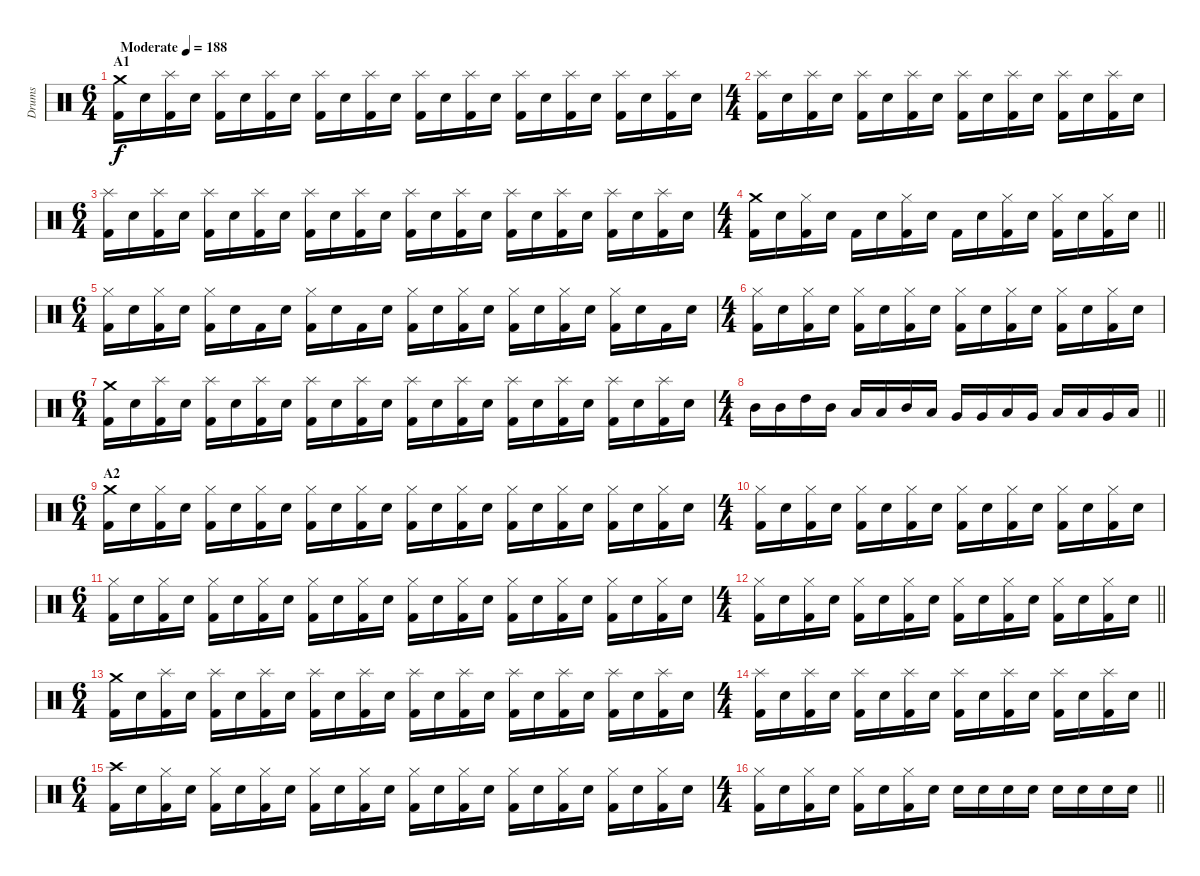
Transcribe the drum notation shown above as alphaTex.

\track ("Drums" "Drums") {instrument percussion}
\staff {score}
\articulation defaults
\ts (6 4)
\section ("" "A1")
\tempo (188 "Moderate")
\clef neutral
\ks c
("Crash medium (hit)" "Kick (hit) 2").16{dy f} "Electric Snare (hit)".16 ("Splash (hit)" "Kick (hit) 2").16 "Electric Snare (hit)".16 ("Splash (hit)" "Kick (hit) 2").16 "Electric Snare (hit)".16 ("Splash (hit)" "Kick (hit) 2").16 "Electric Snare (hit)".16 ("Splash (hit)" "Kick (hit) 2").16 "Electric Snare (hit)".16 ("Splash (hit)" "Kick (hit) 2").16 "Electric Snare (hit)".16 ("Splash (hit)" "Kick (hit) 2").16 "Electric Snare (hit)".16 ("Splash (hit)" "Kick (hit) 2").16 "Electric Snare (hit)".16 ("Splash (hit)" "Kick (hit) 2").16 "Electric Snare (hit)".16 ("Splash (hit)" "Kick (hit) 2").16 "Electric Snare (hit)".16 ("Splash (hit)" "Kick (hit) 2").16 "Electric Snare (hit)".16 ("Splash (hit)" "Kick (hit) 2").16 "Electric Snare (hit)".16 |
\ts (4 4)
("Splash (hit)" "Kick (hit) 2").16 "Electric Snare (hit)".16 ("Splash (hit)" "Kick (hit) 2").16 "Electric Snare (hit)".16 ("Splash (hit)" "Kick (hit) 2").16 "Electric Snare (hit)".16 ("Splash (hit)" "Kick (hit) 2").16 "Electric Snare (hit)".16 ("Splash (hit)" "Kick (hit) 2").16 "Electric Snare (hit)".16 ("Splash (hit)" "Kick (hit) 2").16 "Electric Snare (hit)".16 ("Splash (hit)" "Kick (hit) 2").16 "Electric Snare (hit)".16 ("Splash (hit)" "Kick (hit) 2").16 "Electric Snare (hit)".16 |
\ts (6 4)
("Splash (hit)" "Kick (hit) 2").16 "Electric Snare (hit)".16 ("Splash (hit)" "Kick (hit) 2").16 "Electric Snare (hit)".16 ("Splash (hit)" "Kick (hit) 2").16 "Electric Snare (hit)".16 ("Splash (hit)" "Kick (hit) 2").16 "Electric Snare (hit)".16 ("Splash (hit)" "Kick (hit) 2").16 "Electric Snare (hit)".16 ("Splash (hit)" "Kick (hit) 2").16 "Electric Snare (hit)".16 ("Splash (hit)" "Kick (hit) 2").16 "Electric Snare (hit)".16 ("Splash (hit)" "Kick (hit) 2").16 "Electric Snare (hit)".16 ("Splash (hit)" "Kick (hit) 2").16 "Electric Snare (hit)".16 ("Splash (hit)" "Kick (hit) 2").16 "Electric Snare (hit)".16 ("Splash (hit)" "Kick (hit) 2").16 "Electric Snare (hit)".16 ("Splash (hit)" "Kick (hit) 2").16 "Electric Snare (hit)".16 |
\ts (4 4)
\barLineRight lightlight
("Crash medium (hit)" "Kick (hit) 2").16 "Electric Snare (hit)".16 ("Hi-Hat (closed)" "Kick (hit) 2").16 "Electric Snare (hit)".16 "Kick (hit) 2".16 "Electric Snare (hit)".16 ("Hi-Hat (closed)" "Kick (hit) 2").16 "Electric Snare (hit)".16 "Kick (hit) 2".16 "Electric Snare (hit)".16 ("Hi-Hat (closed)" "Kick (hit) 2").16 "Electric Snare (hit)".16 ("Hi-Hat (closed)" "Kick (hit) 2").16 "Electric Snare (hit)".16 ("Hi-Hat (closed)" "Kick (hit) 2").16 "Electric Snare (hit)".16 |
\ts (6 4)
\section ("" "")
("Hi-Hat (closed)" "Kick (hit) 2").16 "Electric Snare (hit)".16 ("Hi-Hat (closed)" "Kick (hit) 2").16 "Electric Snare (hit)".16 ("Hi-Hat (closed)" "Kick (hit) 2").16 "Electric Snare (hit)".16 "Kick (hit) 2".16 "Electric Snare (hit)".16 ("Hi-Hat (closed)" "Kick (hit) 2").16 "Electric Snare (hit)".16 "Kick (hit) 2".16 "Electric Snare (hit)".16 ("Hi-Hat (closed)" "Kick (hit) 2").16 "Electric Snare (hit)".16 ("Hi-Hat (closed)" "Kick (hit) 2").16 "Electric Snare (hit)".16 ("Hi-Hat (closed)" "Kick (hit) 2").16 "Electric Snare (hit)".16 ("Hi-Hat (closed)" "Kick (hit) 2").16 "Electric Snare (hit)".16 ("Hi-Hat (closed)" "Kick (hit) 2").16 "Electric Snare (hit)".16 "Kick (hit) 2".16 "Electric Snare (hit)".16 |
\ts (4 4)
("Hi-Hat (closed)" "Kick (hit) 2").16 "Electric Snare (hit)".16 ("Hi-Hat (closed)" "Kick (hit) 2").16 "Electric Snare (hit)".16 ("Hi-Hat (closed)" "Kick (hit) 2").16 "Electric Snare (hit)".16 ("Hi-Hat (closed)" "Kick (hit) 2").16 "Electric Snare (hit)".16 ("Hi-Hat (closed)" "Kick (hit) 2").16 "Electric Snare (hit)".16 ("Hi-Hat (closed)" "Kick (hit) 2").16 "Electric Snare (hit)".16 ("Hi-Hat (closed)" "Kick (hit) 2").16 "Electric Snare (hit)".16 ("Hi-Hat (closed)" "Kick (hit) 2").16 "Electric Snare (hit)".16 |
\ts (6 4)
("Crash medium (hit)" "Kick (hit) 2").16 "Electric Snare (hit)".16 ("Splash (hit)" "Kick (hit) 2").16 "Electric Snare (hit)".16 ("Splash (hit)" "Kick (hit) 2").16 "Electric Snare (hit)".16 ("Splash (hit)" "Kick (hit) 2").16 "Electric Snare (hit)".16 ("Splash (hit)" "Kick (hit) 2").16 "Electric Snare (hit)".16 ("Splash (hit)" "Kick (hit) 2").16 "Electric Snare (hit)".16 ("Splash (hit)" "Kick (hit) 2").16 "Electric Snare (hit)".16 ("Splash (hit)" "Kick (hit) 2").16 "Electric Snare (hit)".16 ("Splash (hit)" "Kick (hit) 2").16 "Electric Snare (hit)".16 ("Splash (hit)" "Kick (hit) 2").16 "Electric Snare (hit)".16 ("Splash (hit)" "Kick (hit) 2").16 "Electric Snare (hit)".16 ("Splash (hit)" "Kick (hit) 2").16 "Electric Snare (hit)".16 |
\ts (4 4)
\barLineRight lightlight "Mid Tom (hit)".16 "Mid Tom (hit)".16 "High Tom (hit)".16 "Mid Tom (hit)".16 "Low Tom (hit)".16 "Low Tom (hit)".16 "Mid Tom (hit)".16 "Low Tom (hit)".16 "Very Low Tom (hit)".16 "Very Low Tom (hit)".16 "Low Tom (hit)".16 "Very Low Tom (hit)".16 "Low Floor Tom (hit)".16 "Low Floor Tom (hit)".16 "Very Low Tom (hit)".16 "Low Floor Tom (hit)".16
|
\ts (6 4)
\section ("" "A2")
("Crash medium (hit)" "Kick (hit) 2").16 "Electric Snare (hit)".16 ("Hi-Hat (closed)" "Kick (hit) 2").16 "Electric Snare (hit)".16 ("Hi-Hat (closed)" "Kick (hit) 2").16 "Electric Snare (hit)".16 ("Hi-Hat (closed)" "Kick (hit) 2").16 "Electric Snare (hit)".16 ("Hi-Hat (closed)" "Kick (hit) 2").16 "Electric Snare (hit)".16 ("Hi-Hat (closed)" "Kick (hit) 2").16 "Electric Snare (hit)".16 ("Hi-Hat (closed)" "Kick (hit) 2").16 "Electric Snare (hit)".16 ("Hi-Hat (closed)" "Kick (hit) 2").16 "Electric Snare (hit)".16 ("Hi-Hat (closed)" "Kick (hit) 2").16 "Electric Snare (hit)".16 ("Hi-Hat (closed)" "Kick (hit) 2").16 "Electric Snare (hit)".16 ("Hi-Hat (closed)" "Kick (hit) 2").16 "Electric Snare (hit)".16 ("Hi-Hat (closed)" "Kick (hit) 2").16 "Electric Snare (hit)".16 |
\ts (4 4)
("Hi-Hat (closed)" "Kick (hit) 2").16 "Electric Snare (hit)".16 ("Hi-Hat (closed)" "Kick (hit) 2").16 "Electric Snare (hit)".16 ("Hi-Hat (closed)" "Kick (hit) 2").16 "Electric Snare (hit)".16 ("Hi-Hat (closed)" "Kick (hit) 2").16 "Electric Snare (hit)".16 ("Hi-Hat (closed)" "Kick (hit) 2").16 "Electric Snare (hit)".16 ("Hi-Hat (closed)" "Kick (hit) 2").16 "Electric Snare (hit)".16 ("Hi-Hat (closed)" "Kick (hit) 2").16 "Electric Snare (hit)".16 ("Hi-Hat (closed)" "Kick (hit) 2").16 "Electric Snare (hit)".16 |
\ts (6 4)
("Hi-Hat (closed)" "Kick (hit) 2").16 "Electric Snare (hit)".16 ("Hi-Hat (closed)" "Kick (hit) 2").16 "Electric Snare (hit)".16 ("Hi-Hat (closed)" "Kick (hit) 2").16 "Electric Snare (hit)".16 ("Hi-Hat (closed)" "Kick (hit) 2").16 "Electric Snare (hit)".16 ("Hi-Hat (closed)" "Kick (hit) 2").16 "Electric Snare (hit)".16 ("Hi-Hat (closed)" "Kick (hit) 2").16 "Electric Snare (hit)".16 ("Hi-Hat (closed)" "Kick (hit) 2").16 "Electric Snare (hit)".16 ("Hi-Hat (closed)" "Kick (hit) 2").16 "Electric Snare (hit)".16 ("Hi-Hat (closed)" "Kick (hit) 2").16 "Electric Snare (hit)".16 ("Hi-Hat (closed)" "Kick (hit) 2").16 "Electric Snare (hit)".16 ("Hi-Hat (closed)" "Kick (hit) 2").16 "Electric Snare (hit)".16 ("Hi-Hat (closed)" "Kick (hit) 2").16 "Electric Snare (hit)".16 |
\ts (4 4)
\barLineRight lightlight
("Hi-Hat (closed)" "Kick (hit) 2").16 "Electric Snare (hit)".16 ("Hi-Hat (closed)" "Kick (hit) 2").16 "Electric Snare (hit)".16 ("Hi-Hat (closed)" "Kick (hit) 2").16 "Electric Snare (hit)".16 ("Hi-Hat (closed)" "Kick (hit) 2").16 "Electric Snare (hit)".16 ("Hi-Hat (closed)" "Kick (hit) 2").16 "Electric Snare (hit)".16 ("Hi-Hat (closed)" "Kick (hit) 2").16 "Electric Snare (hit)".16 ("Hi-Hat (closed)" "Kick (hit) 2").16 "Electric Snare (hit)".16 ("Hi-Hat (closed)" "Kick (hit) 2").16 "Electric Snare (hit)".16 |
\ts (6 4)
\section ("" "")
("Crash medium (hit)" "Kick (hit) 2").16 "Electric Snare (hit)".16 ("Splash (hit)" "Kick (hit) 2").16 "Electric Snare (hit)".16 ("Splash (hit)" "Kick (hit) 2").16 "Electric Snare (hit)".16 ("Splash (hit)" "Kick (hit) 2").16 "Electric Snare (hit)".16 ("Splash (hit)" "Kick (hit) 2").16 "Electric Snare (hit)".16 ("Splash (hit)" "Kick (hit) 2").16 "Electric Snare (hit)".16 ("Splash (hit)" "Kick (hit) 2").16 "Electric Snare (hit)".16 ("Splash (hit)" "Kick (hit) 2").16 "Electric Snare (hit)".16 ("Splash (hit)" "Kick (hit) 2").16 "Electric Snare (hit)".16 ("Splash (hit)" "Kick (hit) 2").16 "Electric Snare (hit)".16 ("Splash (hit)" "Kick (hit) 2").16 "Electric Snare (hit)".16 ("Splash (hit)" "Kick (hit) 2").16 "Electric Snare (hit)".16 |
\ts (4 4)
\barLineRight lightlight
("Splash (hit)" "Kick (hit) 2").16 "Electric Snare (hit)".16 ("Splash (hit)" "Kick (hit) 2").16 "Electric Snare (hit)".16 ("Splash (hit)" "Kick (hit) 2").16 "Electric Snare (hit)".16 ("Splash (hit)" "Kick (hit) 2").16 "Electric Snare (hit)".16 ("Splash (hit)" "Kick (hit) 2").16 "Electric Snare (hit)".16 ("Splash (hit)" "Kick (hit) 2").16 "Electric Snare (hit)".16 ("Splash (hit)" "Kick (hit) 2").16 "Electric Snare (hit)".16 ("Splash (hit)" "Kick (hit) 2").16 "Electric Snare (hit)".16 |
\ts (6 4)
("Crash high (hit)" "Kick (hit) 2").16 "Electric Snare (hit)".16 ("Hi-Hat (closed)" "Kick (hit) 2").16 "Electric Snare (hit)".16 ("Hi-Hat (closed)" "Kick (hit) 2").16 "Electric Snare (hit)".16 ("Hi-Hat (closed)" "Kick (hit) 2").16 "Electric Snare (hit)".16 ("Hi-Hat (closed)" "Kick (hit) 2").16 "Electric Snare (hit)".16 ("Hi-Hat (closed)" "Kick (hit) 2").16 "Electric Snare (hit)".16 ("Hi-Hat (closed)" "Kick (hit) 2").16 "Electric Snare (hit)".16 ("Hi-Hat (closed)" "Kick (hit) 2").16 "Electric Snare (hit)".16 ("Hi-Hat (closed)" "Kick (hit) 2").16 "Electric Snare (hit)".16 ("Hi-Hat (closed)" "Kick (hit) 2").16 "Electric Snare (hit)".16 ("Hi-Hat (closed)" "Kick (hit) 2").16 "Electric Snare (hit)".16 ("Hi-Hat (closed)" "Kick (hit) 2").16 "Electric Snare (hit)".16 |
\ts (4 4)
\barLineRight lightlight
("Hi-Hat (closed)" "Kick (hit) 2").16 "Electric Snare (hit)".16 ("Hi-Hat (closed)" "Kick (hit) 2").16 "Electric Snare (hit)".16 ("Hi-Hat (closed)" "Kick (hit) 2").16 "Electric Snare (hit)".16 ("Hi-Hat (closed)" "Kick (hit) 2").16 "Electric Snare (hit)".16 "Electric Snare (hit)".16 "Electric Snare (hit)".16 "Electric Snare (hit)".16 "Electric Snare (hit)".16 "Electric Snare (hit)".16 "Electric Snare (hit)".16 "Electric Snare (hit)".16 "Electric Snare (hit)".16
